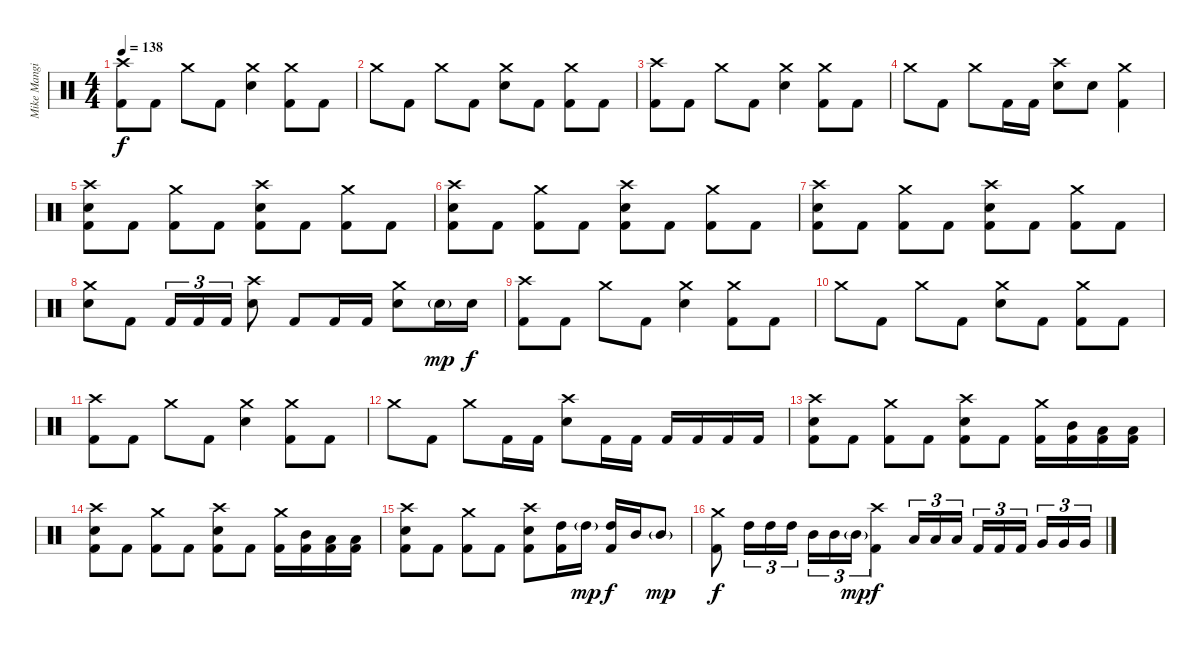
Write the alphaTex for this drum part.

\track ("Mike Mangini" "Mike Mangi") {instrument percussion}
\staff {score}
\articulation defaults
\ts (4 4)
\tempo 138
\clef neutral
\ks c
("Crash high (hit)" "Kick (hit) 2").8{dy f} "Kick (hit) 2".8 "Crash medium (hit)".8 "Kick (hit) 2".8 ("Crash medium (hit)" "Electric Snare (hit)").4 ("Crash medium (hit)" "Kick (hit) 2").8 "Kick (hit) 2".8 |
"Crash medium (hit)".8 "Kick (hit) 2".8 "Crash medium (hit)".8 "Kick (hit) 2".8 ("Crash medium (hit)" "Electric Snare (hit)").8 "Kick (hit) 2".8 ("Crash medium (hit)" "Kick (hit) 2").8 "Kick (hit) 2".8 |
("Crash high (hit)" "Kick (hit) 2").8 "Kick (hit) 2".8 "Crash medium (hit)".8 "Kick (hit) 2".8 ("Crash medium (hit)" "Electric Snare (hit)").4 ("Crash medium (hit)" "Kick (hit) 2").8 "Kick (hit) 2".8 |
"Crash medium (hit)".8 "Kick (hit) 2".8 "Crash medium (hit)".8 "Kick (hit) 2".16 "Kick (hit) 2".16 ("Crash high (hit)" "Electric Snare (hit)").8 "Electric Snare (hit)".8 ("Crash medium (hit)" "Kick (hit) 2").4 |
("Crash high (hit)" "Electric Snare (hit)" "Kick (hit) 2").8 "Kick (hit) 2".8 ("Crash medium (hit)" "Kick (hit) 2").8 "Kick (hit) 2".8 ("Crash high (hit)" "Electric Snare (hit)" "Kick (hit) 2").8 "Kick (hit) 2".8 ("Crash medium (hit)" "Kick (hit) 2").8 "Kick (hit) 2".8 |
("Crash high (hit)" "Electric Snare (hit)" "Kick (hit) 2").8 "Kick (hit) 2".8 ("Crash medium (hit)" "Kick (hit) 2").8 "Kick (hit) 2".8 ("Crash high (hit)" "Electric Snare (hit)" "Kick (hit) 2").8 "Kick (hit) 2".8 ("Crash medium (hit)" "Kick (hit) 2").8 "Kick (hit) 2".8 |
("Crash high (hit)" "Electric Snare (hit)" "Kick (hit) 2").8 "Kick (hit) 2".8 ("Crash medium (hit)" "Kick (hit) 2").8 "Kick (hit) 2".8 ("Crash high (hit)" "Electric Snare (hit)" "Kick (hit) 2").8 "Kick (hit) 2".8 ("Crash medium (hit)" "Kick (hit) 2").8 "Kick (hit) 2".8 |
("Crash medium (hit)" "Electric Snare (hit)").8 "Kick (hit) 2".8 "Kick (hit) 2".16{tu (3 2)} "Kick (hit) 2".16{tu (3 2)} "Kick (hit) 2".16{tu (3 2)} ("Crash high (hit)" "Electric Snare (hit)").8 "Kick (hit) 2".8 "Kick (hit) 2".16 "Kick (hit) 2".16 ("Crash medium (hit)" "Electric Snare (hit)").8 "Electric Snare (hit)"{g}.16{dy mp} "Electric Snare (hit)".16{dy f} |
("Crash high (hit)" "Kick (hit) 2").8 "Kick (hit) 2".8 "Crash medium (hit)".8 "Kick (hit) 2".8 ("Crash medium (hit)" "Electric Snare (hit)").4 ("Crash medium (hit)" "Kick (hit) 2").8 "Kick (hit) 2".8 |
"Crash medium (hit)".8 "Kick (hit) 2".8 "Crash medium (hit)".8 "Kick (hit) 2".8 ("Crash medium (hit)" "Electric Snare (hit)").8 "Kick (hit) 2".8 ("Crash medium (hit)" "Kick (hit) 2").8 "Kick (hit) 2".8 |
("Crash high (hit)" "Kick (hit) 2").8 "Kick (hit) 2".8 "Crash medium (hit)".8 "Kick (hit) 2".8 ("Crash medium (hit)" "Electric Snare (hit)").4 ("Crash medium (hit)" "Kick (hit) 2").8 "Kick (hit) 2".8 |
"Crash medium (hit)".8 "Kick (hit) 2".8 "Crash medium (hit)".8 "Kick (hit) 2".16 "Kick (hit) 2".16 ("Crash high (hit)" "Electric Snare (hit)").8 "Kick (hit) 2".16 "Kick (hit) 2".16 "Kick (hit) 2".16 "Kick (hit) 2".16 "Kick (hit) 2".16 "Kick (hit) 2".16 |
("Crash high (hit)" "Electric Snare (hit)" "Kick (hit) 2").8 "Kick (hit) 2".8 ("Crash medium (hit)" "Kick (hit) 2").8 "Kick (hit) 2".8 ("Crash high (hit)" "Electric Snare (hit)" "Kick (hit) 2").8 "Kick (hit) 2".8 ("Crash medium (hit)" "Kick (hit) 2").16 ("Mid Tom (hit)" "Kick (hit) 2").16 ("Low Tom (hit)" "Kick (hit) 2").16 ("Low Tom (hit)" "Kick (hit) 2").16 |
("Crash high (hit)" "Electric Snare (hit)" "Kick (hit) 2").8 "Kick (hit) 2".8 ("Crash medium (hit)" "Kick (hit) 2").8 "Kick (hit) 2".8 ("Crash high (hit)" "Electric Snare (hit)" "Kick (hit) 2").8 "Kick (hit) 2".8 ("Crash medium (hit)" "Kick (hit) 2").16 ("Mid Tom (hit)" "Kick (hit) 2").16 ("Low Tom (hit)" "Kick (hit) 2").16 ("Low Tom (hit)" "Kick (hit) 2").16 |
("Crash high (hit)" "Electric Snare (hit)" "Kick (hit) 2").8 "Kick (hit) 2".8 ("Crash medium (hit)" "Kick (hit) 2").8 "Kick (hit) 2".8 ("Crash high (hit)" "Electric Snare (hit)" "Kick (hit) 2").8 ("High Tom (hit)" "Kick (hit) 2").16 "High Tom (hit)"{g}.16{dy mp} ("High Tom (hit)" "Kick (hit) 2").16{dy f} "Mid Tom (hit)".16 "Mid Tom (hit)"{g}.8{dy mp} |
("Crash medium (hit)" "Kick (hit) 2").8{dy f} "High Tom (hit)".16{tu (3 2)} "High Tom (hit)".16{tu (3 2)} "High Tom (hit)".16{tu (3 2)} "Mid Tom (hit)".16{tu (3 2)} "Mid Tom (hit)".16{tu (3 2)} "Mid Tom (hit)"{g}.16{tu (3 2) dy mp} ("Crash high (hit)" "Kick (hit) 2").4{dy f} "Low Tom (hit)".16{tu (3 2)} "Low Tom (hit)".16{tu (3 2)} "Low Tom (hit)".16{tu (3 2)} "Kick (hit) 2".16{tu (3 2)} "Kick (hit) 2".16{tu (3 2)} "Kick (hit) 2".16{tu (3 2) beam splitsecondary} "Very Low Tom (hit)".16{tu (3 2)} "Very Low Tom (hit)".16{tu (3 2)} "Very Low Tom (hit)".16{tu (3 2)}
